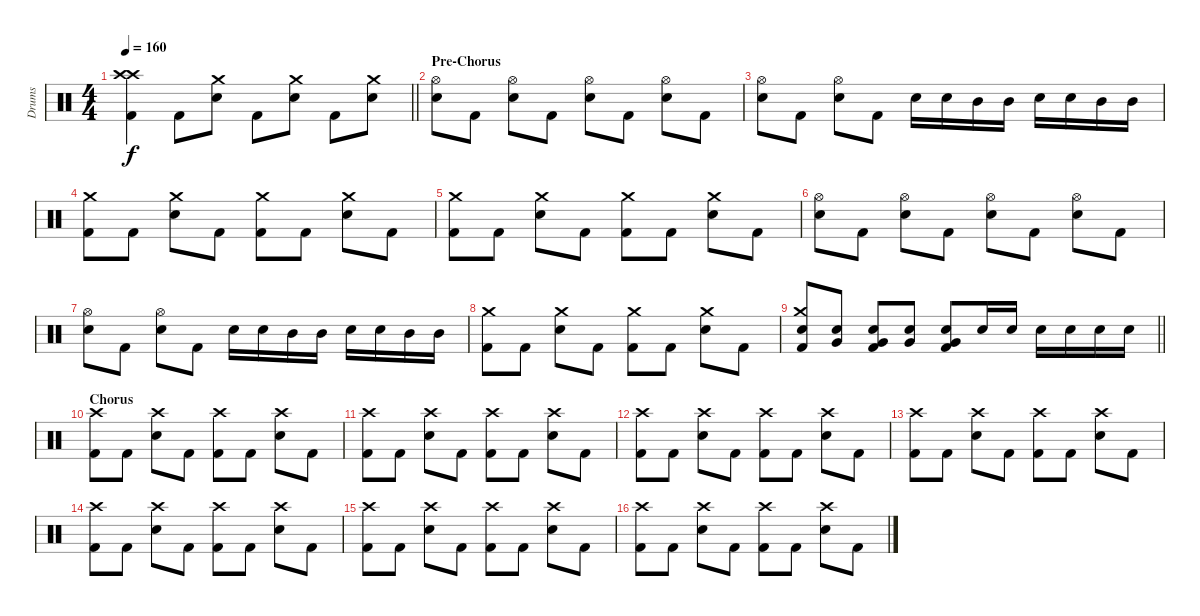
\track ("Drums" "Drums") {instrument percussion}
\staff {score}
\articulation defaults
\ts (4 4)
\tempo 160
\clef neutral
\barLineRight lightlight
\ks c
("Crash high (hit)" "Crash high (hit)" "Kick (hit) 2").4{dy f} "Kick (hit) 2".8 ("Crash medium (hit)" "Electric Snare (hit)").8 "Kick (hit) 2".8 ("Crash medium (hit)" "Electric Snare (hit)").8 "Kick (hit) 2".8 ("Crash medium (hit)" "Electric Snare (hit)").8 |
\section ("" "Pre-Chorus")
("Hi-Hat (open)" "Electric Snare (hit)").8 "Kick (hit) 2".8 ("Hi-Hat (open)" "Electric Snare (hit)").8 "Kick (hit) 2".8 ("Hi-Hat (open)" "Electric Snare (hit)").8 "Kick (hit) 2".8 ("Hi-Hat (open)" "Electric Snare (hit)").8 "Kick (hit) 2".8 |
("Hi-Hat (open)" "Electric Snare (hit)").8 "Kick (hit) 2".8 ("Hi-Hat (open)" "Electric Snare (hit)").8 "Kick (hit) 2".8 "Electric Snare (hit)".16 "Electric Snare (hit)".16 "Mid Tom (hit)".16 "Mid Tom (hit)".16 "Electric Snare (hit)".16 "Electric Snare (hit)".16 "Mid Tom (hit)".16 "Mid Tom (hit)".16 |
("Crash medium (hit)" "Kick (hit) 2").8 "Kick (hit) 2".8 ("Crash medium (hit)" "Electric Snare (hit)").8 "Kick (hit) 2".8 ("Crash medium (hit)" "Kick (hit) 2").8 "Kick (hit) 2".8 ("Crash medium (hit)" "Electric Snare (hit)").8 "Kick (hit) 2".8 |
("Crash medium (hit)" "Kick (hit) 2").8 "Kick (hit) 2".8 ("Crash medium (hit)" "Electric Snare (hit)").8 "Kick (hit) 2".8 ("Crash medium (hit)" "Kick (hit) 2").8 "Kick (hit) 2".8 ("Crash medium (hit)" "Electric Snare (hit)").8 "Kick (hit) 2".8 |
("Hi-Hat (open)" "Electric Snare (hit)").8 "Kick (hit) 2".8 ("Hi-Hat (open)" "Electric Snare (hit)").8 "Kick (hit) 2".8 ("Hi-Hat (open)" "Electric Snare (hit)").8 "Kick (hit) 2".8 ("Hi-Hat (open)" "Electric Snare (hit)").8 "Kick (hit) 2".8 |
("Hi-Hat (open)" "Electric Snare (hit)").8 "Kick (hit) 2".8 ("Hi-Hat (open)" "Electric Snare (hit)").8 "Kick (hit) 2".8 "Electric Snare (hit)".16 "Electric Snare (hit)".16 "Mid Tom (hit)".16 "Mid Tom (hit)".16 "Electric Snare (hit)".16 "Electric Snare (hit)".16 "Mid Tom (hit)".16 "Mid Tom (hit)".16 |
("Crash medium (hit)" "Kick (hit) 2").8 "Kick (hit) 2".8 ("Crash medium (hit)" "Electric Snare (hit)").8 "Kick (hit) 2".8 ("Crash medium (hit)" "Kick (hit) 2").8 "Kick (hit) 2".8 ("Crash medium (hit)" "Electric Snare (hit)").8 "Kick (hit) 2".8 |
\barLineRight lightlight
("Crash medium (hit)" "Electric Snare (hit)" "Kick (hit) 2").8 ("Very Low Tom (hit)" "Electric Snare (hit)").8 ("Very Low Tom (hit)" "Electric Snare (hit)" "Kick (hit) 2").8 ("Very Low Tom (hit)" "Electric Snare (hit)").8 ("Very Low Tom (hit)" "Electric Snare (hit)" "Kick (hit) 2").8 "Electric Snare (hit)".16 "Electric Snare (hit)".16 "Electric Snare (hit)".16 "Electric Snare (hit)".16 "Electric Snare (hit)".16 "Electric Snare (hit)".16 |
\section ("" "Chorus")
("Crash high (hit)" "Kick (hit) 2").8 "Kick (hit) 2".8 ("Crash high (hit)" "Electric Snare (hit)").8 "Kick (hit) 2".8 ("Crash high (hit)" "Kick (hit) 2").8 "Kick (hit) 2".8 ("Crash high (hit)" "Electric Snare (hit)").8 "Kick (hit) 2".8 |
("Crash high (hit)" "Kick (hit) 2").8 "Kick (hit) 2".8 ("Crash high (hit)" "Electric Snare (hit)").8 "Kick (hit) 2".8 ("Crash high (hit)" "Kick (hit) 2").8 "Kick (hit) 2".8 ("Crash high (hit)" "Electric Snare (hit)").8 "Kick (hit) 2".8 |
("Crash high (hit)" "Kick (hit) 2").8 "Kick (hit) 2".8 ("Crash high (hit)" "Electric Snare (hit)").8 "Kick (hit) 2".8 ("Crash high (hit)" "Kick (hit) 2").8 "Kick (hit) 2".8 ("Crash high (hit)" "Electric Snare (hit)").8 "Kick (hit) 2".8 |
("Crash high (hit)" "Kick (hit) 2").8 "Kick (hit) 2".8 ("Crash high (hit)" "Electric Snare (hit)").8 "Kick (hit) 2".8 ("Crash high (hit)" "Kick (hit) 2").8 "Kick (hit) 2".8 ("Crash high (hit)" "Electric Snare (hit)").8 "Kick (hit) 2".8 |
("Crash high (hit)" "Kick (hit) 2").8 "Kick (hit) 2".8 ("Crash high (hit)" "Electric Snare (hit)").8 "Kick (hit) 2".8 ("Crash high (hit)" "Kick (hit) 2").8 "Kick (hit) 2".8 ("Crash high (hit)" "Electric Snare (hit)").8 "Kick (hit) 2".8 |
("Crash high (hit)" "Kick (hit) 2").8 "Kick (hit) 2".8 ("Crash high (hit)" "Electric Snare (hit)").8 "Kick (hit) 2".8 ("Crash high (hit)" "Kick (hit) 2").8 "Kick (hit) 2".8 ("Crash high (hit)" "Electric Snare (hit)").8 "Kick (hit) 2".8 |
("Crash high (hit)" "Kick (hit) 2").8 "Kick (hit) 2".8 ("Crash high (hit)" "Electric Snare (hit)").8 "Kick (hit) 2".8 ("Crash high (hit)" "Kick (hit) 2").8 "Kick (hit) 2".8 ("Crash high (hit)" "Electric Snare (hit)").8 "Kick (hit) 2".8
